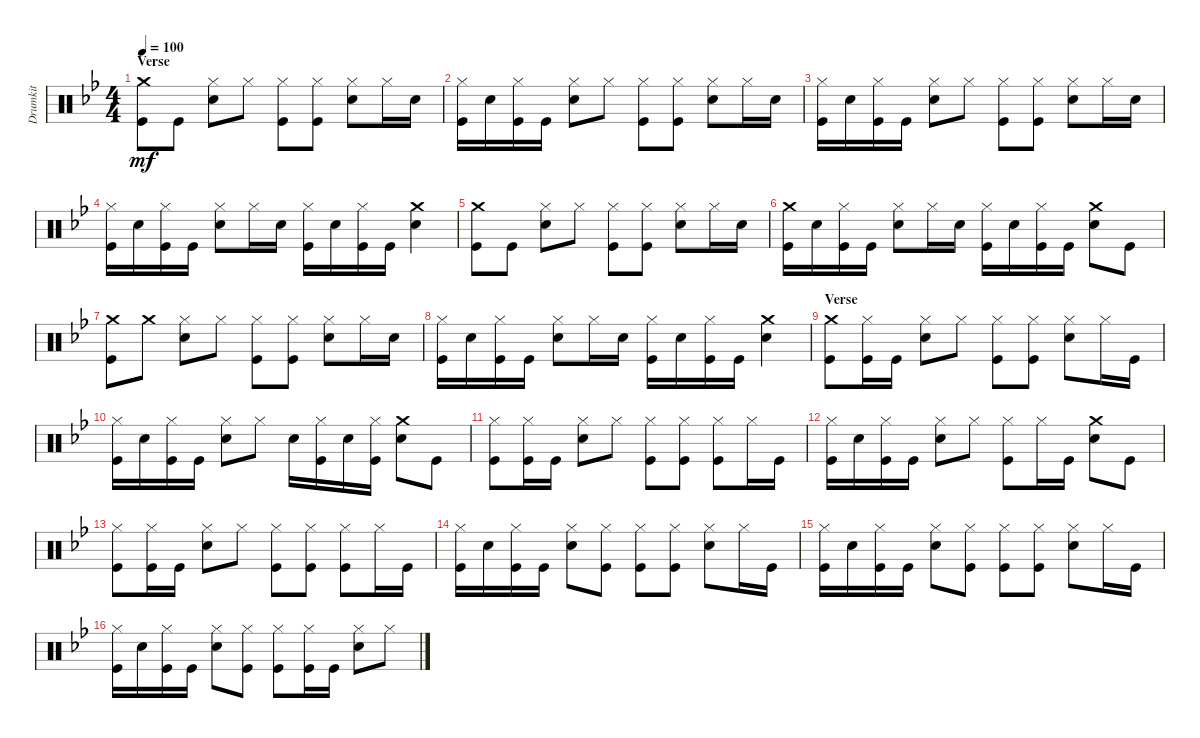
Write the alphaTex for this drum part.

\track ("Drumkit" "Drumkit") {instrument percussion}
\staff {score}
\articulation defaults
\ts (4 4)
\section ("" "Verse")
\tempo 100
\clef neutral
\ks bb
("Crash medium (hit)" "Kick (hit)").8{dy mf} "Kick (hit)".8 ("Snare (hit) 2" "Hi-Hat (closed)").8 "Hi-Hat (closed)".8 ("Hi-Hat (closed)" "Kick (hit)").8 ("Kick (hit)" "Hi-Hat (closed)").8 ("Snare (hit) 2" "Hi-Hat (closed)").8 "Hi-Hat (closed)".16 "Snare (hit) 2".16 |
("Kick (hit)" "Hi-Hat (closed)").16 "Snare (hit) 2".16 ("Kick (hit)" "Hi-Hat (closed)").16 "Kick (hit)".16 ("Snare (hit) 2" "Hi-Hat (closed)").8 "Hi-Hat (closed)".8 ("Kick (hit)" "Hi-Hat (closed)").8 ("Kick (hit)" "Hi-Hat (closed)").8 ("Snare (hit) 2" "Hi-Hat (closed)").8 "Hi-Hat (closed)".16 "Snare (hit) 2".16 |
("Kick (hit)" "Hi-Hat (closed)").16 "Snare (hit) 2".16 ("Kick (hit)" "Hi-Hat (closed)").16 "Kick (hit)".16 ("Snare (hit) 2" "Hi-Hat (closed)").8 "Hi-Hat (closed)".8 ("Kick (hit)" "Hi-Hat (closed)").8 ("Kick (hit)" "Hi-Hat (closed)").8 ("Snare (hit) 2" "Hi-Hat (closed)").8 "Hi-Hat (closed)".16 "Snare (hit) 2".16 |
("Kick (hit)" "Hi-Hat (closed)").16 "Snare (hit) 2".16 ("Kick (hit)" "Hi-Hat (closed)").16 "Kick (hit)".16 ("Snare (hit) 2" "Hi-Hat (closed)").8 "Hi-Hat (closed)".16 "Snare (hit) 2".16 ("Kick (hit)" "Hi-Hat (closed)").16 "Snare (hit) 2".16 ("Kick (hit)" "Hi-Hat (closed)").16 "Kick (hit)".16 ("Snare (hit) 2" "Crash medium (hit)").4 |
("Crash medium (hit)" "Kick (hit)").8 "Kick (hit)".8 ("Snare (hit) 2" "Hi-Hat (closed)").8 "Hi-Hat (closed)".8 ("Hi-Hat (closed)" "Kick (hit)").8 ("Kick (hit)" "Hi-Hat (closed)").8 ("Snare (hit) 2" "Hi-Hat (closed)").8 "Hi-Hat (closed)".16 "Snare (hit) 2".16 |
("Kick (hit)" "Crash medium (hit)").16 "Snare (hit) 2".16 ("Kick (hit)" "Hi-Hat (closed)").16 "Kick (hit)".16 ("Snare (hit) 2" "Hi-Hat (closed)").8 "Hi-Hat (closed)".16 "Snare (hit) 2".16 ("Kick (hit)" "Hi-Hat (closed)").16 "Snare (hit) 2".16 ("Kick (hit)" "Hi-Hat (closed)").16 "Kick (hit)".16 ("Crash medium (hit)" "Snare (hit) 2").8 "Kick (hit)".8 |
("Kick (hit)" "Crash medium (hit)").8 "Crash medium (hit)".8 ("Snare (hit) 2" "Hi-Hat (closed)").8 "Hi-Hat (closed)".8 ("Hi-Hat (closed)" "Kick (hit)").8 ("Kick (hit)" "Hi-Hat (closed)").8 ("Snare (hit) 2" "Hi-Hat (closed)").8 "Hi-Hat (closed)".16 "Snare (hit) 2".16 |
("Kick (hit)" "Hi-Hat (closed)").16 "Snare (hit) 2".16 ("Kick (hit)" "Hi-Hat (closed)").16 "Kick (hit)".16 ("Snare (hit) 2" "Hi-Hat (closed)").8 "Hi-Hat (closed)".16 "Snare (hit) 2".16 ("Kick (hit)" "Hi-Hat (closed)").16 "Snare (hit) 2".16 ("Kick (hit)" "Hi-Hat (closed)").16 "Kick (hit)".16 ("Snare (hit) 2" "Crash medium (hit)").4 |
\section ("" "Verse")
("Crash medium (hit)" "Kick (hit)").8 ("Hi-Hat (closed)" "Kick (hit)").16 "Kick (hit)".16 ("Snare (hit) 2" "Hi-Hat (closed)").8 "Hi-Hat (closed)".8 ("Kick (hit)" "Hi-Hat (closed)").8 ("Kick (hit)" "Hi-Hat (closed)").8 ("Hi-Hat (closed)" "Snare (hit) 2").8 "Hi-Hat (closed)".16 "Kick (hit)".16 |
("Kick (hit)" "Hi-Hat (closed)").16 "Snare (hit) 2".16 ("Kick (hit)" "Hi-Hat (closed)").16 "Kick (hit)".16 ("Snare (hit) 2" "Hi-Hat (closed)").8 "Hi-Hat (closed)".8 "Snare (hit) 2".16 ("Kick (hit)" "Hi-Hat (closed)").16 "Snare (hit) 2".16 ("Kick (hit)" "Hi-Hat (closed)").16 ("Snare (hit) 2" "Crash medium (hit)").8 "Kick (hit)".8 |
("Kick (hit)" "Hi-Hat (closed)").8 ("Hi-Hat (closed)" "Kick (hit)").16 "Kick (hit)".16 ("Snare (hit) 2" "Hi-Hat (closed)").8 "Hi-Hat (closed)".8 ("Hi-Hat (closed)" "Kick (hit)").8 ("Hi-Hat (closed)" "Kick (hit)").8 ("Kick (hit)" "Hi-Hat (closed)").8 "Hi-Hat (closed)".16 "Kick (hit)".16 |
("Kick (hit)" "Hi-Hat (closed)").16 "Snare (hit) 2".16 ("Kick (hit)" "Hi-Hat (closed)").16 "Kick (hit)".16 ("Snare (hit) 2" "Hi-Hat (closed)").8 "Hi-Hat (closed)".8 ("Kick (hit)" "Hi-Hat (closed)").8 "Hi-Hat (closed)".16 "Kick (hit)".16 ("Crash medium (hit)" "Snare (hit) 2").8 "Kick (hit)".8 |
("Kick (hit)" "Hi-Hat (closed)").8 ("Hi-Hat (closed)" "Kick (hit)").16 "Kick (hit)".16 ("Snare (hit) 2" "Hi-Hat (closed)").8 "Hi-Hat (closed)".8 ("Hi-Hat (closed)" "Kick (hit)").8 ("Hi-Hat (closed)" "Kick (hit)").8 ("Kick (hit)" "Hi-Hat (closed)").8 "Hi-Hat (closed)".16 "Kick (hit)".16 |
("Kick (hit)" "Hi-Hat (closed)").16 "Snare (hit) 2".16 ("Kick (hit)" "Hi-Hat (closed)").16 "Kick (hit)".16 ("Snare (hit) 2" "Hi-Hat (closed)").8 ("Hi-Hat (closed)" "Kick (hit)").8 ("Hi-Hat (closed)" "Kick (hit)").8 ("Kick (hit)" "Hi-Hat (closed)").8 ("Hi-Hat (closed)" "Snare (hit) 2").8 "Hi-Hat (closed)".16 "Kick (hit)".16 |
("Kick (hit)" "Hi-Hat (closed)").16 "Snare (hit) 2".16 ("Kick (hit)" "Hi-Hat (closed)").16 "Kick (hit)".16 ("Snare (hit) 2" "Hi-Hat (closed)").8 ("Hi-Hat (closed)" "Kick (hit)").8 ("Hi-Hat (closed)" "Kick (hit)").8 ("Kick (hit)" "Hi-Hat (closed)").8 ("Hi-Hat (closed)" "Snare (hit) 2").8 "Hi-Hat (closed)".16 "Kick (hit)".16 |
("Kick (hit)" "Hi-Hat (closed)").16 "Snare (hit) 2".16 ("Kick (hit)" "Hi-Hat (closed)").16 "Kick (hit)".16 ("Snare (hit) 2" "Hi-Hat (closed)").8 ("Hi-Hat (closed)" "Kick (hit)").8 ("Kick (hit)" "Hi-Hat (closed)").8 ("Hi-Hat (closed)" "Kick (hit)").16 "Kick (hit)".16 ("Snare (hit) 2" "Hi-Hat (closed)").8 "Hi-Hat (closed)".8
